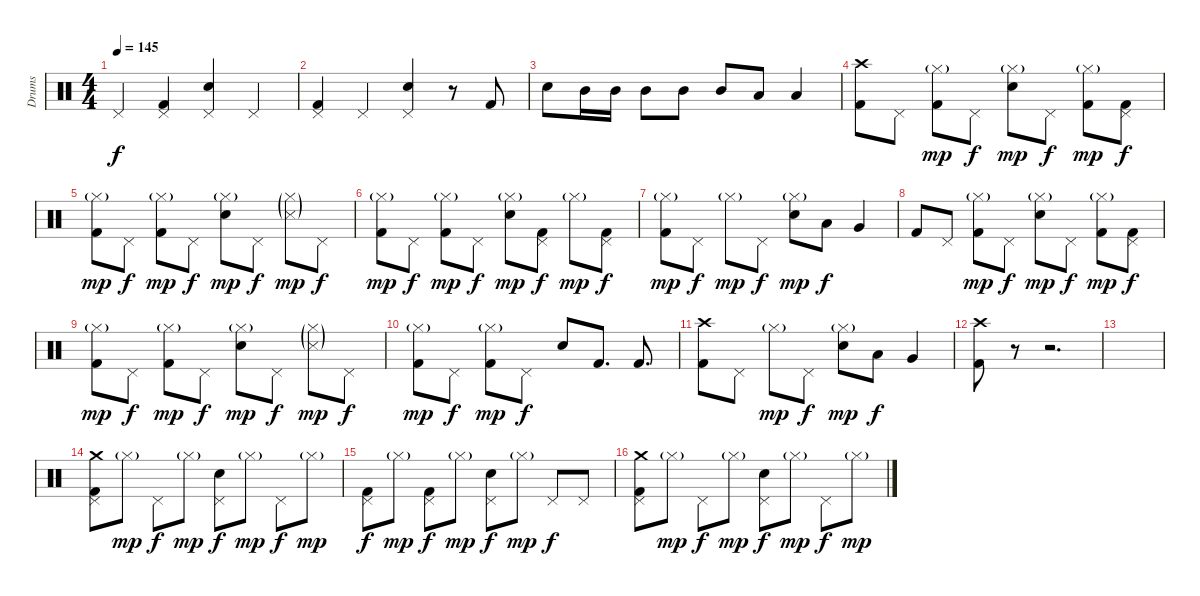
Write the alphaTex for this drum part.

\track ("Drums" "Drums") {instrument percussion}
\staff {score}
\articulation defaults
\ts (4 4)
\tempo 145
\clef neutral
\ks c "Pedal Hi-Hat (hit)".4{dy f}
("Pedal Hi-Hat (hit)" "Kick (hit) 2").4 ("Pedal Hi-Hat (hit)" "Snare (hit) 2").4 "Pedal Hi-Hat (hit)".4 |
("Pedal Hi-Hat (hit)" "Kick (hit) 2").4 "Pedal Hi-Hat (hit)".4 ("Pedal Hi-Hat (hit)" "Snare (hit) 2").4 r.8 "Kick (hit) 2".8 |
"Snare (hit) 2".8 "Mid Tom (hit)".16 "Mid Tom (hit)".16 "Mid Tom (hit)".8 "Mid Tom (hit)".8 "Mid Tom (hit)".8 "Low Tom (hit)".8 "Low Floor Tom (hit)".4 |
("Crash high (hit)" "Kick (hit) 2").8 "Pedal Hi-Hat (hit)".8 ("Hi-Hat (closed)"{g} "Kick (hit) 2").8{dy mp} "Pedal Hi-Hat (hit)".8{dy f} ("Hi-Hat (closed)"{g} "Snare (hit) 2").8{dy mp} "Pedal Hi-Hat (hit)".8{dy f} ("Hi-Hat (closed)"{g} "Kick (hit) 2").8{dy mp} ("Pedal Hi-Hat (hit)" "Kick (hit) 2").8{dy f} |
("Hi-Hat (closed)"{g} "Kick (hit) 2").8{dy mp} "Pedal Hi-Hat (hit)".8{dy f} ("Hi-Hat (closed)"{g} "Kick (hit) 2").8{dy mp} "Pedal Hi-Hat (hit)".8{dy f} ("Hi-Hat (closed)"{g} "Snare (hit) 2").8{dy mp} "Pedal Hi-Hat (hit)".8{dy f} ("Hi-Hat (closed)"{g} "Snare (side stick) 3"{g}).8{dy mp} "Pedal Hi-Hat (hit)".8{dy f} |
("Hi-Hat (closed)"{g} "Kick (hit) 2").8{dy mp} "Pedal Hi-Hat (hit)".8{dy f} ("Hi-Hat (closed)"{g} "Kick (hit) 2").8{dy mp} "Pedal Hi-Hat (hit)".8{dy f} ("Hi-Hat (closed)"{g} "Snare (hit) 2").8{dy mp} ("Pedal Hi-Hat (hit)" "Kick (hit) 2").8{dy f} "Hi-Hat (closed)"{g}.8{dy mp} ("Pedal Hi-Hat (hit)" "Kick (hit) 2").8{dy f} |
("Hi-Hat (closed)"{g} "Kick (hit) 2").8{dy mp} "Pedal Hi-Hat (hit)".8{dy f} "Hi-Hat (closed)"{g}.8{dy mp} "Pedal Hi-Hat (hit)".8{dy f} ("Hi-Hat (closed)"{g} "Snare (hit) 2").8{dy mp} "Low Tom (hit)".8{dy f} "Very Low Tom (hit)".4 |
"Kick (hit) 2".8 "Pedal Hi-Hat (hit)".8 ("Hi-Hat (closed)"{g} "Kick (hit) 2").8{dy mp} "Pedal Hi-Hat (hit)".8{dy f} ("Hi-Hat (closed)"{g} "Snare (hit) 2").8{dy mp} "Pedal Hi-Hat (hit)".8{dy f} ("Hi-Hat (closed)"{g} "Kick (hit) 2").8{dy mp} ("Pedal Hi-Hat (hit)" "Kick (hit) 2").8{dy f} |
("Hi-Hat (closed)"{g} "Kick (hit) 2").8{dy mp} "Pedal Hi-Hat (hit)".8{dy f} ("Hi-Hat (closed)"{g} "Kick (hit) 2").8{dy mp} "Pedal Hi-Hat (hit)".8{dy f} ("Hi-Hat (closed)"{g} "Snare (hit) 2").8{dy mp} "Pedal Hi-Hat (hit)".8{dy f} ("Hi-Hat (closed)"{g} "Snare (side stick) 3"{g}).8{dy mp} "Pedal Hi-Hat (hit)".8{dy f} |
("Hi-Hat (closed)"{g} "Kick (hit) 2").8{dy mp} "Pedal Hi-Hat (hit)".8{dy f} ("Hi-Hat (closed)"{g} "Kick (hit) 2").8{dy mp} "Pedal Hi-Hat (hit)".8{dy f} "Snare (hit) 2".8 "Kick (hit) 2".8{d} "Kick (hit) 2".8{d} |
("Crash high (hit)" "Kick (hit) 2").8 "Pedal Hi-Hat (hit)".8 "Hi-Hat (closed)"{g}.8{dy mp} "Pedal Hi-Hat (hit)".8{dy f} ("Hi-Hat (closed)"{g} "Snare (hit) 2").8{dy mp} "Low Tom (hit)".8{dy f} "Very Low Tom (hit)".4 |
("Crash high (hit)" "Kick (hit) 2").8 r.8 r.2{d} |
|
("Pedal Hi-Hat (hit)" "Crash medium (hit)" "Kick (hit) 2").8 "Hi-Hat (closed)"{g}.8{dy mp} "Pedal Hi-Hat (hit)".8{dy f} "Hi-Hat (closed)"{g}.8{dy mp} ("Pedal Hi-Hat (hit)" "Snare (hit) 2").8{dy f} "Hi-Hat (closed)"{g}.8{dy mp} "Pedal Hi-Hat (hit)".8{dy f} "Hi-Hat (closed)"{g}.8{dy mp} |
("Pedal Hi-Hat (hit)" "Kick (hit) 2").8{dy f} "Hi-Hat (closed)"{g}.8{dy mp} ("Pedal Hi-Hat (hit)" "Kick (hit) 2").8{dy f} "Hi-Hat (closed)"{g}.8{dy mp} ("Pedal Hi-Hat (hit)" "Snare (hit) 2").8{dy f} "Hi-Hat (closed)"{g}.8{dy mp} "Pedal Hi-Hat (hit)".8{dy f} "Pedal Hi-Hat (hit)".8 |
("Pedal Hi-Hat (hit)" "Crash medium (hit)" "Kick (hit) 2").8 "Hi-Hat (closed)"{g}.8{dy mp} "Pedal Hi-Hat (hit)".8{dy f} "Hi-Hat (closed)"{g}.8{dy mp} ("Pedal Hi-Hat (hit)" "Snare (hit) 2").8{dy f} "Hi-Hat (closed)"{g}.8{dy mp} "Pedal Hi-Hat (hit)".8{dy f} "Hi-Hat (closed)"{g}.8{dy mp}
